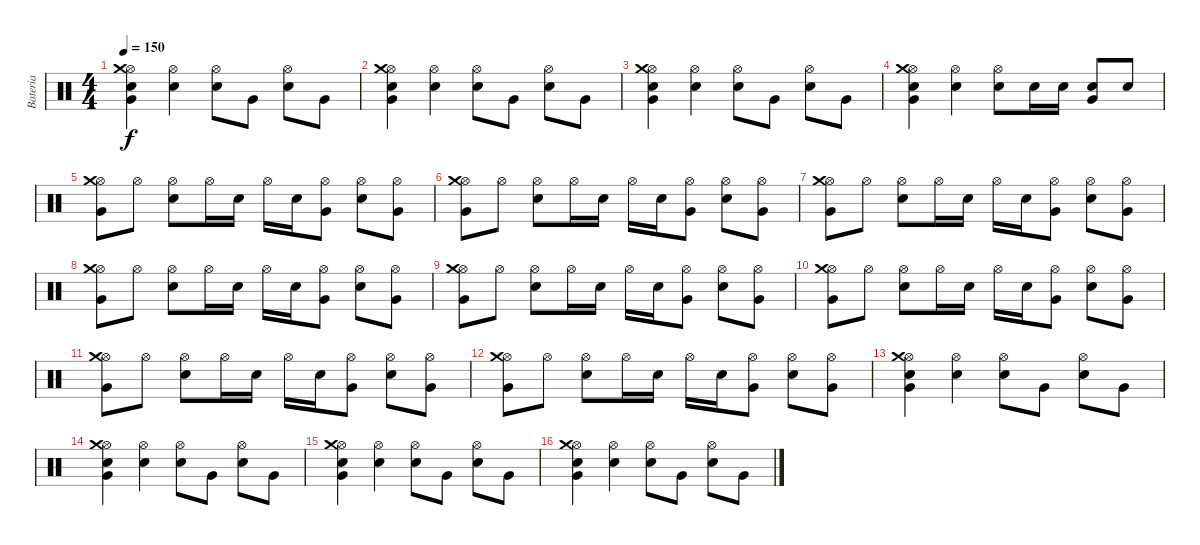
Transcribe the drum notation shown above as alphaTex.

\track ("Bateria" "Bateria") {instrument percussion}
\staff {score}
\articulation defaults
\ts (4 4)
\tempo 150
\clef neutral
\ks c
("Hi-Hat (open)" "Very Low Tom (hit)" "Electric Snare (hit)" "Crash medium (hit)").4{dy f} ("Hi-Hat (open)" "Electric Snare (hit)").4 ("Hi-Hat (open)" "Electric Snare (hit)").8 "Very Low Tom (hit)".8 ("Hi-Hat (open)" "Electric Snare (hit)").8 "Very Low Tom (hit)".8 |
("Hi-Hat (open)" "Very Low Tom (hit)" "Electric Snare (hit)" "Crash medium (hit)").4 ("Hi-Hat (open)" "Electric Snare (hit)").4 ("Hi-Hat (open)" "Electric Snare (hit)").8 "Very Low Tom (hit)".8 ("Hi-Hat (open)" "Electric Snare (hit)").8 "Very Low Tom (hit)".8 |
("Hi-Hat (open)" "Very Low Tom (hit)" "Electric Snare (hit)" "Crash medium (hit)").4 ("Hi-Hat (open)" "Electric Snare (hit)").4 ("Hi-Hat (open)" "Electric Snare (hit)").8 "Very Low Tom (hit)".8 ("Hi-Hat (open)" "Electric Snare (hit)").8 "Very Low Tom (hit)".8 |
("Hi-Hat (open)" "Very Low Tom (hit)" "Electric Snare (hit)" "Crash medium (hit)").4 ("Hi-Hat (open)" "Electric Snare (hit)").4 ("Hi-Hat (open)" "Electric Snare (hit)").8 "Electric Snare (hit)".16 "Electric Snare (hit)".16 ("Very Low Tom (hit)" "Electric Snare (hit)").8 "Electric Snare (hit)".8 |
("Hi-Hat (open)" "Very Low Tom (hit)" "Crash medium (hit)").8 "Hi-Hat (open)".8 ("Hi-Hat (open)" "Electric Snare (hit)").8 "Hi-Hat (open)".16 "Electric Snare (hit)".16 "Hi-Hat (open)".16 "Electric Snare (hit)".16 ("Hi-Hat (open)" "Very Low Tom (hit)").8 ("Hi-Hat (open)" "Electric Snare (hit)").8 ("Hi-Hat (open)" "Very Low Tom (hit)").8 |
("Hi-Hat (open)" "Very Low Tom (hit)" "Crash medium (hit)").8 "Hi-Hat (open)".8 ("Hi-Hat (open)" "Electric Snare (hit)").8 "Hi-Hat (open)".16 "Electric Snare (hit)".16 "Hi-Hat (open)".16 "Electric Snare (hit)".16 ("Hi-Hat (open)" "Very Low Tom (hit)").8 ("Hi-Hat (open)" "Electric Snare (hit)").8 ("Hi-Hat (open)" "Very Low Tom (hit)").8 |
("Hi-Hat (open)" "Very Low Tom (hit)" "Crash medium (hit)").8 "Hi-Hat (open)".8 ("Hi-Hat (open)" "Electric Snare (hit)").8 "Hi-Hat (open)".16 "Electric Snare (hit)".16 "Hi-Hat (open)".16 "Electric Snare (hit)".16 ("Hi-Hat (open)" "Very Low Tom (hit)").8 ("Hi-Hat (open)" "Electric Snare (hit)").8 ("Hi-Hat (open)" "Very Low Tom (hit)").8 |
("Hi-Hat (open)" "Very Low Tom (hit)" "Crash medium (hit)").8 "Hi-Hat (open)".8 ("Hi-Hat (open)" "Electric Snare (hit)").8 "Hi-Hat (open)".16 "Electric Snare (hit)".16 "Hi-Hat (open)".16 "Electric Snare (hit)".16 ("Hi-Hat (open)" "Very Low Tom (hit)").8 ("Hi-Hat (open)" "Electric Snare (hit)").8 ("Hi-Hat (open)" "Very Low Tom (hit)").8 |
("Hi-Hat (open)" "Very Low Tom (hit)" "Crash medium (hit)").8 "Hi-Hat (open)".8 ("Hi-Hat (open)" "Electric Snare (hit)").8 "Hi-Hat (open)".16 "Electric Snare (hit)".16 "Hi-Hat (open)".16 "Electric Snare (hit)".16 ("Hi-Hat (open)" "Very Low Tom (hit)").8 ("Hi-Hat (open)" "Electric Snare (hit)").8 ("Hi-Hat (open)" "Very Low Tom (hit)").8 |
("Hi-Hat (open)" "Very Low Tom (hit)" "Crash medium (hit)").8 "Hi-Hat (open)".8 ("Hi-Hat (open)" "Electric Snare (hit)").8 "Hi-Hat (open)".16 "Electric Snare (hit)".16 "Hi-Hat (open)".16 "Electric Snare (hit)".16 ("Hi-Hat (open)" "Very Low Tom (hit)").8 ("Hi-Hat (open)" "Electric Snare (hit)").8 ("Hi-Hat (open)" "Very Low Tom (hit)").8 |
("Hi-Hat (open)" "Very Low Tom (hit)" "Crash medium (hit)").8 "Hi-Hat (open)".8 ("Hi-Hat (open)" "Electric Snare (hit)").8 "Hi-Hat (open)".16 "Electric Snare (hit)".16 "Hi-Hat (open)".16 "Electric Snare (hit)".16 ("Hi-Hat (open)" "Very Low Tom (hit)").8 ("Hi-Hat (open)" "Electric Snare (hit)").8 ("Hi-Hat (open)" "Very Low Tom (hit)").8 |
("Hi-Hat (open)" "Very Low Tom (hit)" "Crash medium (hit)").8 "Hi-Hat (open)".8 ("Hi-Hat (open)" "Electric Snare (hit)").8 "Hi-Hat (open)".16 "Electric Snare (hit)".16 "Hi-Hat (open)".16 "Electric Snare (hit)".16 ("Hi-Hat (open)" "Very Low Tom (hit)").8 ("Hi-Hat (open)" "Electric Snare (hit)").8 ("Hi-Hat (open)" "Very Low Tom (hit)").8 |
("Hi-Hat (open)" "Very Low Tom (hit)" "Electric Snare (hit)" "Crash medium (hit)").4 ("Hi-Hat (open)" "Electric Snare (hit)").4 ("Hi-Hat (open)" "Electric Snare (hit)").8 "Very Low Tom (hit)".8 ("Hi-Hat (open)" "Electric Snare (hit)").8 "Very Low Tom (hit)".8 |
("Hi-Hat (open)" "Very Low Tom (hit)" "Electric Snare (hit)" "Crash medium (hit)").4 ("Hi-Hat (open)" "Electric Snare (hit)").4 ("Hi-Hat (open)" "Electric Snare (hit)").8 "Very Low Tom (hit)".8 ("Hi-Hat (open)" "Electric Snare (hit)").8 "Very Low Tom (hit)".8 |
("Hi-Hat (open)" "Very Low Tom (hit)" "Electric Snare (hit)" "Crash medium (hit)").4 ("Hi-Hat (open)" "Electric Snare (hit)").4 ("Hi-Hat (open)" "Electric Snare (hit)").8 "Very Low Tom (hit)".8 ("Hi-Hat (open)" "Electric Snare (hit)").8 "Very Low Tom (hit)".8 |
("Hi-Hat (open)" "Very Low Tom (hit)" "Electric Snare (hit)" "Crash medium (hit)").4 ("Hi-Hat (open)" "Electric Snare (hit)").4 ("Hi-Hat (open)" "Electric Snare (hit)").8 "Very Low Tom (hit)".8 ("Hi-Hat (open)" "Electric Snare (hit)").8 "Very Low Tom (hit)".8
